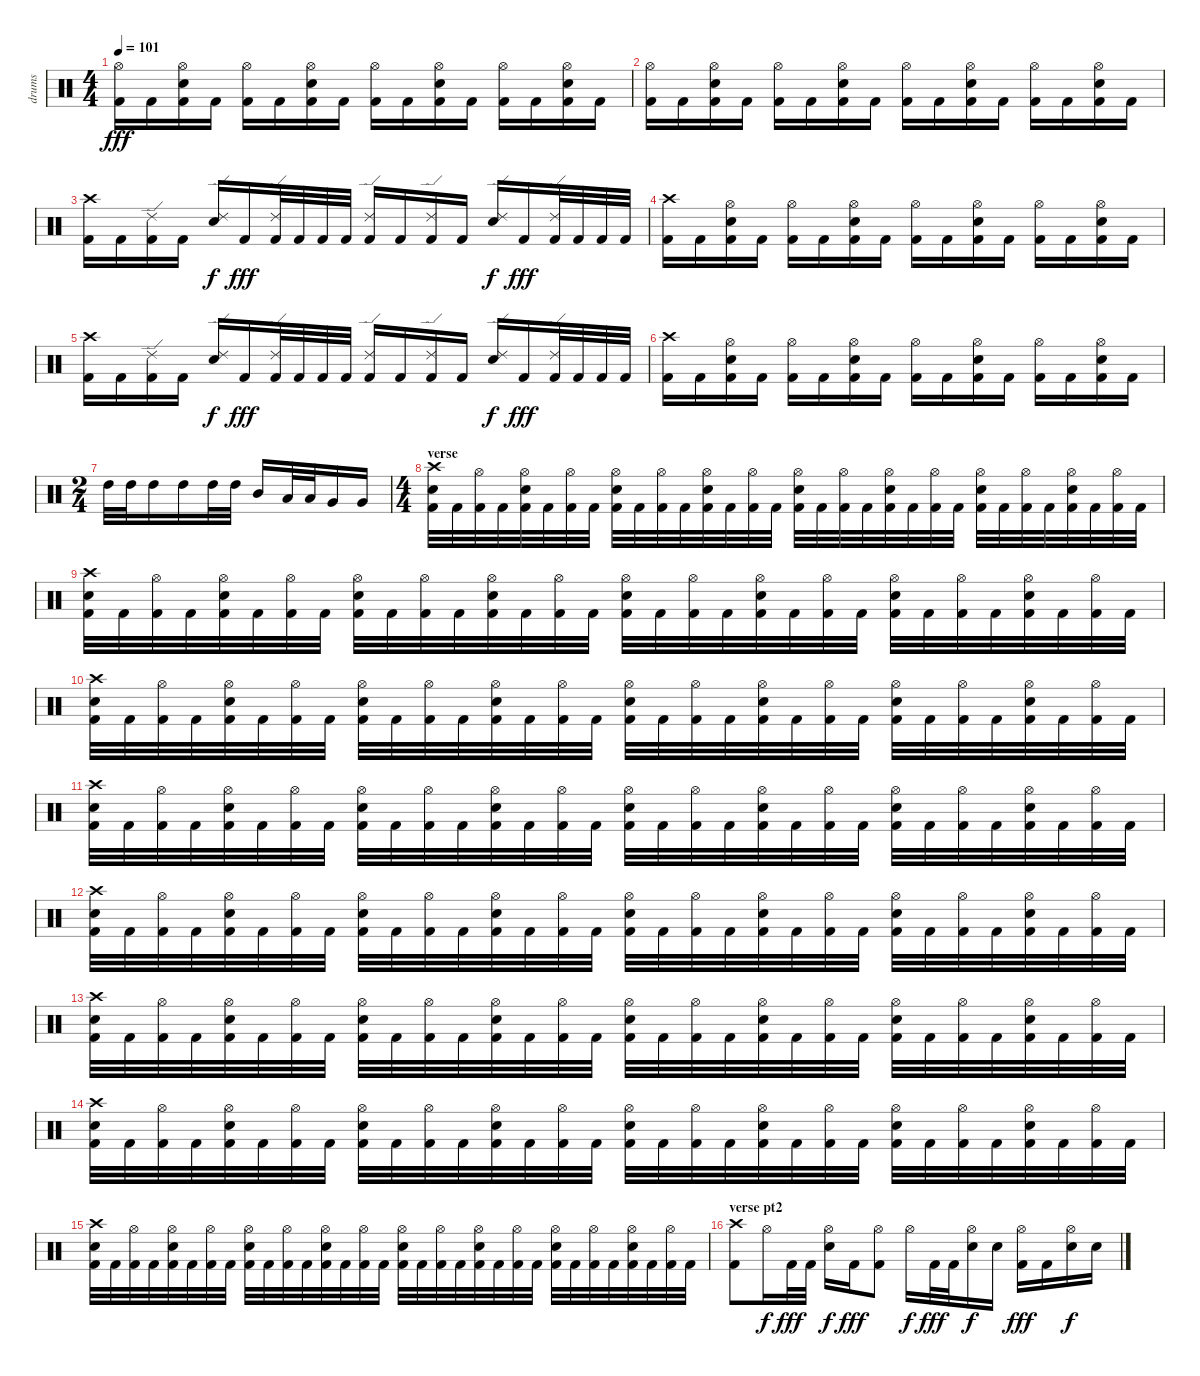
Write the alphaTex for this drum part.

\track ("drums" "drums") {instrument percussion}
\staff {score}
\articulation defaults
\ts (4 4)
\tempo 101
\clef neutral
\ks c
("Hi-Hat (open)" "Kick (hit) 2").16{dy fff} "Kick (hit) 2".16 ("Hi-Hat (open)" "Snare (hit) 2" "Kick (hit) 2").16 "Kick (hit) 2".16 ("Hi-Hat (open)" "Kick (hit) 2").16 "Kick (hit) 2".16 ("Hi-Hat (open)" "Snare (hit) 2" "Kick (hit) 2").16 "Kick (hit) 2".16 ("Hi-Hat (open)" "Kick (hit) 2").16 "Kick (hit) 2".16 ("Hi-Hat (open)" "Snare (hit) 2" "Kick (hit) 2").16 "Kick (hit) 2".16 ("Hi-Hat (open)" "Kick (hit) 2").16 "Kick (hit) 2".16 ("Hi-Hat (open)" "Snare (hit) 2" "Kick (hit) 2").16 "Kick (hit) 2".16 |
("Hi-Hat (open)" "Kick (hit) 2").16 "Kick (hit) 2".16 ("Hi-Hat (open)" "Snare (hit) 2" "Kick (hit) 2").16 "Kick (hit) 2".16 ("Hi-Hat (open)" "Kick (hit) 2").16 "Kick (hit) 2".16 ("Hi-Hat (open)" "Snare (hit) 2" "Kick (hit) 2").16 "Kick (hit) 2".16 ("Hi-Hat (open)" "Kick (hit) 2").16 "Kick (hit) 2".16 ("Hi-Hat (open)" "Snare (hit) 2" "Kick (hit) 2").16 "Kick (hit) 2".16 ("Hi-Hat (open)" "Kick (hit) 2").16 "Kick (hit) 2".16 ("Hi-Hat (open)" "Snare (hit) 2" "Kick (hit) 2").16 "Kick (hit) 2".16 |
("Crash high (hit)" "Kick (hit) 2").16 "Kick (hit) 2".16 ("Ride (edge) 2" "Kick (hit) 2").16 "Kick (hit) 2".16 ("Ride (edge) 2" "Snare (hit) 2").16{dy f} "Kick (hit) 2".16{dy fff} ("Ride (edge) 2" "Kick (hit) 2").32 "Kick (hit) 2".32 "Kick (hit) 2".32 "Kick (hit) 2".32 ("Ride (edge) 2" "Kick (hit) 2").16 "Kick (hit) 2".16 ("Ride (edge) 2" "Kick (hit) 2").16 "Kick (hit) 2".16 ("Ride (edge) 2" "Snare (hit) 2").16{dy f} "Kick (hit) 2".16{dy fff} ("Ride (edge) 2" "Kick (hit) 2").32 "Kick (hit) 2".32 "Kick (hit) 2".32 "Kick (hit) 2".32 |
("Crash high (hit)" "Kick (hit) 2").16 "Kick (hit) 2".16 ("Hi-Hat (open)" "Snare (hit) 2" "Kick (hit) 2").16 "Kick (hit) 2".16 ("Hi-Hat (open)" "Kick (hit) 2").16 "Kick (hit) 2".16 ("Hi-Hat (open)" "Snare (hit) 2" "Kick (hit) 2").16 "Kick (hit) 2".16 ("Hi-Hat (open)" "Kick (hit) 2").16 "Kick (hit) 2".16 ("Hi-Hat (open)" "Snare (hit) 2" "Kick (hit) 2").16 "Kick (hit) 2".16 ("Hi-Hat (open)" "Kick (hit) 2").16 "Kick (hit) 2".16 ("Hi-Hat (open)" "Snare (hit) 2" "Kick (hit) 2").16 "Kick (hit) 2".16 |
("Crash high (hit)" "Kick (hit) 2").16 "Kick (hit) 2".16 ("Ride (edge) 2" "Kick (hit) 2").16 "Kick (hit) 2".16 ("Ride (edge) 2" "Snare (hit) 2").16{dy f} "Kick (hit) 2".16{dy fff} ("Ride (edge) 2" "Kick (hit) 2").32 "Kick (hit) 2".32 "Kick (hit) 2".32 "Kick (hit) 2".32 ("Ride (edge) 2" "Kick (hit) 2").16 "Kick (hit) 2".16 ("Ride (edge) 2" "Kick (hit) 2").16 "Kick (hit) 2".16 ("Ride (edge) 2" "Snare (hit) 2").16{dy f} "Kick (hit) 2".16{dy fff} ("Ride (edge) 2" "Kick (hit) 2").32 "Kick (hit) 2".32 "Kick (hit) 2".32 "Kick (hit) 2".32 |
("Crash high (hit)" "Kick (hit) 2").16 "Kick (hit) 2".16 ("Hi-Hat (open)" "Snare (hit) 2" "Kick (hit) 2").16 "Kick (hit) 2".16 ("Hi-Hat (open)" "Kick (hit) 2").16 "Kick (hit) 2".16 ("Hi-Hat (open)" "Snare (hit) 2" "Kick (hit) 2").16 "Kick (hit) 2".16 ("Hi-Hat (open)" "Kick (hit) 2").16 "Kick (hit) 2".16 ("Hi-Hat (open)" "Snare (hit) 2" "Kick (hit) 2").16 "Kick (hit) 2".16 ("Hi-Hat (open)" "Kick (hit) 2").16 "Kick (hit) 2".16 ("Hi-Hat (open)" "Snare (hit) 2" "Kick (hit) 2").16 "Kick (hit) 2".16 |
\ts (2 4)
"High Tom (hit)".32 "High Tom (hit)".32 "High Tom (hit)".16 "High Tom (hit)".16 "High Tom (hit)".32 "High Tom (hit)".32 "Mid Tom (hit)".16 "Low Tom (hit)".32 "Low Tom (hit)".32 "Very Low Tom (hit)".16 "Very Low Tom (hit)".16 |
\ts (4 4)
\section ("" "verse")
("Crash high (hit)" "Snare (hit) 2" "Kick (hit) 2").32 "Kick (hit) 2".32 ("Hi-Hat (open)" "Kick (hit) 2").32 "Kick (hit) 2".32 ("Hi-Hat (open)" "Snare (hit) 2" "Kick (hit) 2").32 "Kick (hit) 2".32 ("Hi-Hat (open)" "Kick (hit) 2").32 "Kick (hit) 2".32 ("Hi-Hat (open)" "Snare (hit) 2" "Kick (hit) 2").32 "Kick (hit) 2".32 ("Hi-Hat (open)" "Kick (hit) 2").32 "Kick (hit) 2".32 ("Hi-Hat (open)" "Snare (hit) 2" "Kick (hit) 2").32 "Kick (hit) 2".32 ("Hi-Hat (open)" "Kick (hit) 2").32 "Kick (hit) 2".32 ("Hi-Hat (open)" "Snare (hit) 2" "Kick (hit) 2").32 "Kick (hit) 2".32 ("Hi-Hat (open)" "Kick (hit) 2").32 "Kick (hit) 2".32 ("Hi-Hat (open)" "Snare (hit) 2" "Kick (hit) 2").32 "Kick (hit) 2".32 ("Hi-Hat (open)" "Kick (hit) 2").32 "Kick (hit) 2".32 ("Hi-Hat (open)" "Snare (hit) 2" "Kick (hit) 2").32 "Kick (hit) 2".32 ("Hi-Hat (open)" "Kick (hit) 2").32 "Kick (hit) 2".32 ("Hi-Hat (open)" "Snare (hit) 2" "Kick (hit) 2").32 "Kick (hit) 2".32 ("Hi-Hat (open)" "Kick (hit) 2").32 "Kick (hit) 2".32 |
("Crash high (hit)" "Snare (hit) 2" "Kick (hit) 2").32 "Kick (hit) 2".32 ("Hi-Hat (open)" "Kick (hit) 2").32 "Kick (hit) 2".32 ("Hi-Hat (open)" "Snare (hit) 2" "Kick (hit) 2").32 "Kick (hit) 2".32 ("Hi-Hat (open)" "Kick (hit) 2").32 "Kick (hit) 2".32 ("Hi-Hat (open)" "Snare (hit) 2" "Kick (hit) 2").32 "Kick (hit) 2".32 ("Hi-Hat (open)" "Kick (hit) 2").32 "Kick (hit) 2".32 ("Hi-Hat (open)" "Snare (hit) 2" "Kick (hit) 2").32 "Kick (hit) 2".32 ("Hi-Hat (open)" "Kick (hit) 2").32 "Kick (hit) 2".32 ("Hi-Hat (open)" "Snare (hit) 2" "Kick (hit) 2").32 "Kick (hit) 2".32 ("Hi-Hat (open)" "Kick (hit) 2").32 "Kick (hit) 2".32 ("Hi-Hat (open)" "Snare (hit) 2" "Kick (hit) 2").32 "Kick (hit) 2".32 ("Hi-Hat (open)" "Kick (hit) 2").32 "Kick (hit) 2".32 ("Hi-Hat (open)" "Snare (hit) 2" "Kick (hit) 2").32 "Kick (hit) 2".32 ("Hi-Hat (open)" "Kick (hit) 2").32 "Kick (hit) 2".32 ("Hi-Hat (open)" "Snare (hit) 2" "Kick (hit) 2").32 "Kick (hit) 2".32 ("Hi-Hat (open)" "Kick (hit) 2").32 "Kick (hit) 2".32 |
("Crash high (hit)" "Snare (hit) 2" "Kick (hit) 2").32 "Kick (hit) 2".32 ("Hi-Hat (open)" "Kick (hit) 2").32 "Kick (hit) 2".32 ("Hi-Hat (open)" "Snare (hit) 2" "Kick (hit) 2").32 "Kick (hit) 2".32 ("Hi-Hat (open)" "Kick (hit) 2").32 "Kick (hit) 2".32 ("Hi-Hat (open)" "Snare (hit) 2" "Kick (hit) 2").32 "Kick (hit) 2".32 ("Hi-Hat (open)" "Kick (hit) 2").32 "Kick (hit) 2".32 ("Hi-Hat (open)" "Snare (hit) 2" "Kick (hit) 2").32 "Kick (hit) 2".32 ("Hi-Hat (open)" "Kick (hit) 2").32 "Kick (hit) 2".32 ("Hi-Hat (open)" "Snare (hit) 2" "Kick (hit) 2").32 "Kick (hit) 2".32 ("Hi-Hat (open)" "Kick (hit) 2").32 "Kick (hit) 2".32 ("Hi-Hat (open)" "Snare (hit) 2" "Kick (hit) 2").32 "Kick (hit) 2".32 ("Hi-Hat (open)" "Kick (hit) 2").32 "Kick (hit) 2".32 ("Hi-Hat (open)" "Snare (hit) 2" "Kick (hit) 2").32 "Kick (hit) 2".32 ("Hi-Hat (open)" "Kick (hit) 2").32 "Kick (hit) 2".32 ("Hi-Hat (open)" "Snare (hit) 2" "Kick (hit) 2").32 "Kick (hit) 2".32 ("Hi-Hat (open)" "Kick (hit) 2").32 "Kick (hit) 2".32 |
("Crash high (hit)" "Snare (hit) 2" "Kick (hit) 2").32 "Kick (hit) 2".32 ("Hi-Hat (open)" "Kick (hit) 2").32 "Kick (hit) 2".32 ("Hi-Hat (open)" "Snare (hit) 2" "Kick (hit) 2").32 "Kick (hit) 2".32 ("Hi-Hat (open)" "Kick (hit) 2").32 "Kick (hit) 2".32 ("Hi-Hat (open)" "Snare (hit) 2" "Kick (hit) 2").32 "Kick (hit) 2".32 ("Hi-Hat (open)" "Kick (hit) 2").32 "Kick (hit) 2".32 ("Hi-Hat (open)" "Snare (hit) 2" "Kick (hit) 2").32 "Kick (hit) 2".32 ("Hi-Hat (open)" "Kick (hit) 2").32 "Kick (hit) 2".32 ("Hi-Hat (open)" "Snare (hit) 2" "Kick (hit) 2").32 "Kick (hit) 2".32 ("Hi-Hat (open)" "Kick (hit) 2").32 "Kick (hit) 2".32 ("Hi-Hat (open)" "Snare (hit) 2" "Kick (hit) 2").32 "Kick (hit) 2".32 ("Hi-Hat (open)" "Kick (hit) 2").32 "Kick (hit) 2".32 ("Hi-Hat (open)" "Snare (hit) 2" "Kick (hit) 2").32 "Kick (hit) 2".32 ("Hi-Hat (open)" "Kick (hit) 2").32 "Kick (hit) 2".32 ("Hi-Hat (open)" "Snare (hit) 2" "Kick (hit) 2").32 "Kick (hit) 2".32 ("Hi-Hat (open)" "Kick (hit) 2").32 "Kick (hit) 2".32 |
("Crash high (hit)" "Snare (hit) 2" "Kick (hit) 2").32 "Kick (hit) 2".32 ("Hi-Hat (open)" "Kick (hit) 2").32 "Kick (hit) 2".32 ("Hi-Hat (open)" "Snare (hit) 2" "Kick (hit) 2").32 "Kick (hit) 2".32 ("Hi-Hat (open)" "Kick (hit) 2").32 "Kick (hit) 2".32 ("Hi-Hat (open)" "Snare (hit) 2" "Kick (hit) 2").32 "Kick (hit) 2".32 ("Hi-Hat (open)" "Kick (hit) 2").32 "Kick (hit) 2".32 ("Hi-Hat (open)" "Snare (hit) 2" "Kick (hit) 2").32 "Kick (hit) 2".32 ("Hi-Hat (open)" "Kick (hit) 2").32 "Kick (hit) 2".32 ("Hi-Hat (open)" "Snare (hit) 2" "Kick (hit) 2").32 "Kick (hit) 2".32 ("Hi-Hat (open)" "Kick (hit) 2").32 "Kick (hit) 2".32 ("Hi-Hat (open)" "Snare (hit) 2" "Kick (hit) 2").32 "Kick (hit) 2".32 ("Hi-Hat (open)" "Kick (hit) 2").32 "Kick (hit) 2".32 ("Hi-Hat (open)" "Snare (hit) 2" "Kick (hit) 2").32 "Kick (hit) 2".32 ("Hi-Hat (open)" "Kick (hit) 2").32 "Kick (hit) 2".32 ("Hi-Hat (open)" "Snare (hit) 2" "Kick (hit) 2").32 "Kick (hit) 2".32 ("Hi-Hat (open)" "Kick (hit) 2").32 "Kick (hit) 2".32 |
("Crash high (hit)" "Snare (hit) 2" "Kick (hit) 2").32 "Kick (hit) 2".32 ("Hi-Hat (open)" "Kick (hit) 2").32 "Kick (hit) 2".32 ("Hi-Hat (open)" "Snare (hit) 2" "Kick (hit) 2").32 "Kick (hit) 2".32 ("Hi-Hat (open)" "Kick (hit) 2").32 "Kick (hit) 2".32 ("Hi-Hat (open)" "Snare (hit) 2" "Kick (hit) 2").32 "Kick (hit) 2".32 ("Hi-Hat (open)" "Kick (hit) 2").32 "Kick (hit) 2".32 ("Hi-Hat (open)" "Snare (hit) 2" "Kick (hit) 2").32 "Kick (hit) 2".32 ("Hi-Hat (open)" "Kick (hit) 2").32 "Kick (hit) 2".32 ("Hi-Hat (open)" "Snare (hit) 2" "Kick (hit) 2").32 "Kick (hit) 2".32 ("Hi-Hat (open)" "Kick (hit) 2").32 "Kick (hit) 2".32 ("Hi-Hat (open)" "Snare (hit) 2" "Kick (hit) 2").32 "Kick (hit) 2".32 ("Hi-Hat (open)" "Kick (hit) 2").32 "Kick (hit) 2".32 ("Hi-Hat (open)" "Snare (hit) 2" "Kick (hit) 2").32 "Kick (hit) 2".32 ("Hi-Hat (open)" "Kick (hit) 2").32 "Kick (hit) 2".32 ("Hi-Hat (open)" "Snare (hit) 2" "Kick (hit) 2").32 "Kick (hit) 2".32 ("Hi-Hat (open)" "Kick (hit) 2").32 "Kick (hit) 2".32 |
("Crash high (hit)" "Snare (hit) 2" "Kick (hit) 2").32 "Kick (hit) 2".32 ("Hi-Hat (open)" "Kick (hit) 2").32 "Kick (hit) 2".32 ("Hi-Hat (open)" "Snare (hit) 2" "Kick (hit) 2").32 "Kick (hit) 2".32 ("Hi-Hat (open)" "Kick (hit) 2").32 "Kick (hit) 2".32 ("Hi-Hat (open)" "Snare (hit) 2" "Kick (hit) 2").32 "Kick (hit) 2".32 ("Hi-Hat (open)" "Kick (hit) 2").32 "Kick (hit) 2".32 ("Hi-Hat (open)" "Snare (hit) 2" "Kick (hit) 2").32 "Kick (hit) 2".32 ("Hi-Hat (open)" "Kick (hit) 2").32 "Kick (hit) 2".32 ("Hi-Hat (open)" "Snare (hit) 2" "Kick (hit) 2").32 "Kick (hit) 2".32 ("Hi-Hat (open)" "Kick (hit) 2").32 "Kick (hit) 2".32 ("Hi-Hat (open)" "Snare (hit) 2" "Kick (hit) 2").32 "Kick (hit) 2".32 ("Hi-Hat (open)" "Kick (hit) 2").32 "Kick (hit) 2".32 ("Hi-Hat (open)" "Snare (hit) 2" "Kick (hit) 2").32 "Kick (hit) 2".32 ("Hi-Hat (open)" "Kick (hit) 2").32 "Kick (hit) 2".32 ("Hi-Hat (open)" "Snare (hit) 2" "Kick (hit) 2").32 "Kick (hit) 2".32 ("Hi-Hat (open)" "Kick (hit) 2").32 "Kick (hit) 2".32 |
("Crash high (hit)" "Snare (hit) 2" "Kick (hit) 2").32 "Kick (hit) 2".32 ("Hi-Hat (open)" "Kick (hit) 2").32 "Kick (hit) 2".32 ("Hi-Hat (open)" "Snare (hit) 2" "Kick (hit) 2").32 "Kick (hit) 2".32 ("Hi-Hat (open)" "Kick (hit) 2").32 "Kick (hit) 2".32 ("Hi-Hat (open)" "Snare (hit) 2" "Kick (hit) 2").32 "Kick (hit) 2".32 ("Hi-Hat (open)" "Kick (hit) 2").32 "Kick (hit) 2".32 ("Hi-Hat (open)" "Snare (hit) 2" "Kick (hit) 2").32 "Kick (hit) 2".32 ("Hi-Hat (open)" "Kick (hit) 2").32 "Kick (hit) 2".32 ("Hi-Hat (open)" "Snare (hit) 2" "Kick (hit) 2").32 "Kick (hit) 2".32 ("Hi-Hat (open)" "Kick (hit) 2").32 "Kick (hit) 2".32 ("Hi-Hat (open)" "Snare (hit) 2" "Kick (hit) 2").32 "Kick (hit) 2".32 ("Hi-Hat (open)" "Kick (hit) 2").32 "Kick (hit) 2".32 ("Hi-Hat (open)" "Snare (hit) 2" "Kick (hit) 2").32 "Kick (hit) 2".32 ("Hi-Hat (open)" "Kick (hit) 2").32 "Kick (hit) 2".32 ("Hi-Hat (open)" "Snare (hit) 2" "Kick (hit) 2").32 "Kick (hit) 2".32 ("Hi-Hat (open)" "Kick (hit) 2").32 "Kick (hit) 2".32 |
\section ("" "verse pt2")
("Crash high (hit)" "Kick (hit) 2").8 "Hi-Hat (open)".16{dy f} "Kick (hit) 2".32{dy fff} "Kick (hit) 2".32 ("Hi-Hat (open)" "Snare (hit) 2").16{dy f} "Kick (hit) 2".16{dy fff} ("Hi-Hat (open)" "Kick (hit) 2").8 "Hi-Hat (open)".16{dy f} "Kick (hit) 2".32{dy fff} "Kick (hit) 2".32 ("Hi-Hat (open)" "Snare (hit) 2").16{dy f} "Snare (hit) 2".16 ("Hi-Hat (open)" "Kick (hit) 2").16{dy fff} "Kick (hit) 2".16 ("Hi-Hat (open)" "Snare (hit) 2").16{dy f} "Snare (hit) 2".16
